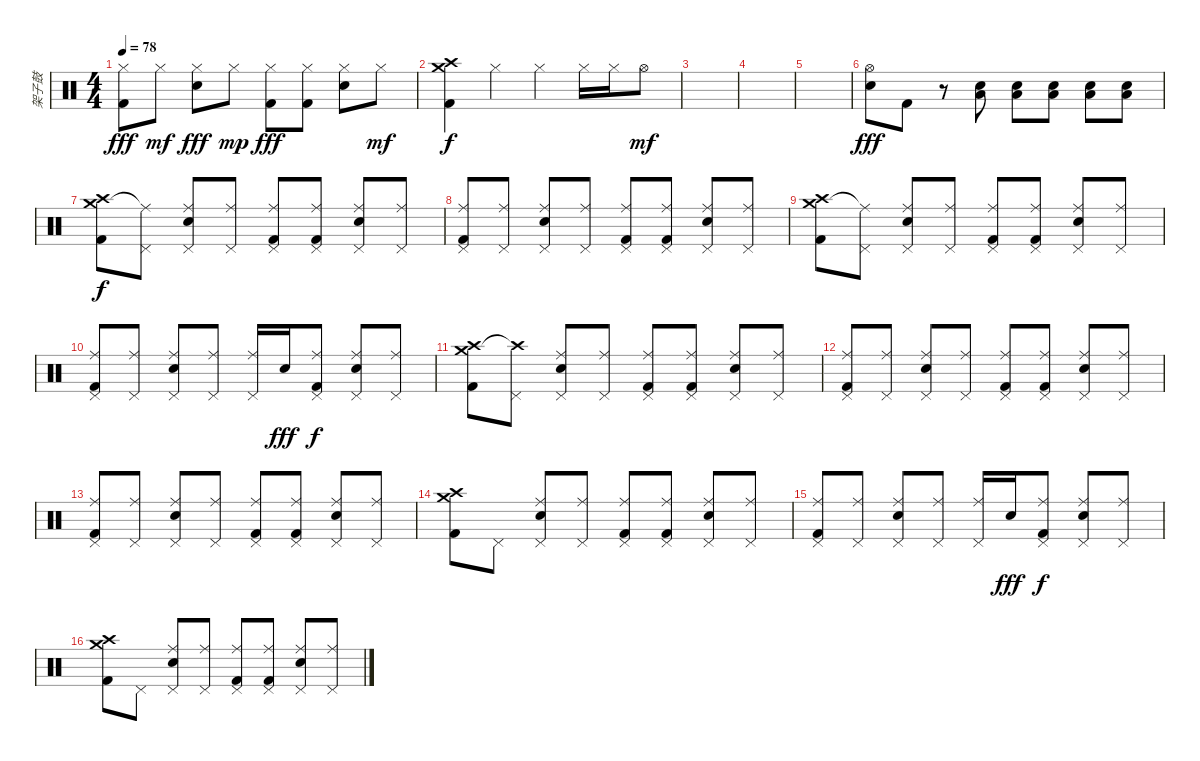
\track ("架子鼓" "架子鼓") {instrument percussion}
\staff {score}
\articulation defaults
\ts (4 4)
\tempo 78
\clef neutral
\ks c
("Hi-Hat (closed)" "Kick (hit) 2").8{dy fff} "Hi-Hat (closed)".8{dy mf} ("Hi-Hat (closed)" "Electric Snare (hit)").8{dy fff} "Hi-Hat (closed)".8{dy mp} ("Hi-Hat (closed)" "Kick (hit) 2").8{dy fff} ("Hi-Hat (closed)" "Kick (hit) 2").8 ("Hi-Hat (closed)" "Electric Snare (hit)").8 "Hi-Hat (closed)".8{dy mf} |
("Crash medium (hit)" "Crash high (hit)" "Kick (hit) 2").4{dy f} "Hi-Hat (closed)".4 "Hi-Hat (closed)".4 "Hi-Hat (closed)".16 "Hi-Hat (closed)".16 "Hi-Hat (open)".8{dy mf} |
|
|
|
("Hi-Hat (open)" "Electric Snare (hit)").8{dy fff} "Kick (hit) 2".8 r.8 ("Electric Snare (hit)" "Low Floor Tom (hit)").8 ("Electric Snare (hit)" "Low Floor Tom (hit)").8 ("Electric Snare (hit)" "Low Floor Tom (hit)").8 ("Electric Snare (hit)" "Low Floor Tom (hit)").8 ("Electric Snare (hit)" "Low Floor Tom (hit)").8 |
("Crash medium (hit)" "Crash high (hit)" "Kick (hit) 2").8{dy f} ("Ride (middle)"{t} "Pedal Hi-Hat (hit)").8 ("Ride (middle)" "Pedal Hi-Hat (hit)" "Electric Snare (hit)").8 ("Ride (middle)" "Pedal Hi-Hat (hit)").8 ("Ride (middle)" "Pedal Hi-Hat (hit)" "Kick (hit) 2").8 ("Ride (middle)" "Pedal Hi-Hat (hit)" "Kick (hit) 2").8 ("Ride (middle)" "Pedal Hi-Hat (hit)" "Electric Snare (hit)").8 ("Ride (middle)" "Pedal Hi-Hat (hit)").8 |
("Ride (middle)" "Pedal Hi-Hat (hit)" "Kick (hit) 2").8 ("Ride (middle)" "Pedal Hi-Hat (hit)").8 ("Ride (middle)" "Pedal Hi-Hat (hit)" "Electric Snare (hit)").8 ("Ride (middle)" "Pedal Hi-Hat (hit)").8 ("Ride (middle)" "Pedal Hi-Hat (hit)" "Kick (hit) 2").8 ("Ride (middle)" "Pedal Hi-Hat (hit)" "Kick (hit) 2").8 ("Ride (middle)" "Pedal Hi-Hat (hit)" "Electric Snare (hit)").8 ("Ride (middle)" "Pedal Hi-Hat (hit)").8 |
("Crash medium (hit)" "Crash high (hit)" "Kick (hit) 2").8 ("Ride (middle)"{t} "Pedal Hi-Hat (hit)").8 ("Ride (middle)" "Pedal Hi-Hat (hit)" "Electric Snare (hit)").8 ("Ride (middle)" "Pedal Hi-Hat (hit)").8 ("Ride (middle)" "Pedal Hi-Hat (hit)" "Kick (hit) 2").8 ("Ride (middle)" "Pedal Hi-Hat (hit)" "Kick (hit) 2").8 ("Ride (middle)" "Pedal Hi-Hat (hit)" "Electric Snare (hit)").8 ("Ride (middle)" "Pedal Hi-Hat (hit)").8 |
("Ride (middle)" "Pedal Hi-Hat (hit)" "Kick (hit) 2").8 ("Ride (middle)" "Pedal Hi-Hat (hit)").8 ("Ride (middle)" "Pedal Hi-Hat (hit)" "Electric Snare (hit)").8 ("Ride (middle)" "Pedal Hi-Hat (hit)").8 ("Ride (middle)" "Pedal Hi-Hat (hit)").16 "Electric Snare (hit)".16{dy fff} ("Ride (middle)" "Pedal Hi-Hat (hit)" "Kick (hit) 2").8{dy f} ("Ride (middle)" "Pedal Hi-Hat (hit)" "Electric Snare (hit)").8 ("Ride (middle)" "Pedal Hi-Hat (hit)").8 |
("Crash medium (hit)" "Crash high (hit)" "Kick (hit) 2").8 ("Crash high (hit)"{t} "Pedal Hi-Hat (hit)").8 ("Ride (middle)" "Pedal Hi-Hat (hit)" "Electric Snare (hit)").8 ("Ride (middle)" "Pedal Hi-Hat (hit)").8 ("Ride (middle)" "Pedal Hi-Hat (hit)" "Kick (hit) 2").8 ("Ride (middle)" "Pedal Hi-Hat (hit)" "Kick (hit) 2").8 ("Ride (middle)" "Pedal Hi-Hat (hit)" "Electric Snare (hit)").8 ("Ride (middle)" "Pedal Hi-Hat (hit)").8 |
("Ride (middle)" "Pedal Hi-Hat (hit)" "Kick (hit) 2").8 ("Ride (middle)" "Pedal Hi-Hat (hit)").8 ("Ride (middle)" "Pedal Hi-Hat (hit)" "Electric Snare (hit)").8 ("Ride (middle)" "Pedal Hi-Hat (hit)").8 ("Ride (middle)" "Pedal Hi-Hat (hit)" "Kick (hit) 2").8 ("Ride (middle)" "Pedal Hi-Hat (hit)" "Kick (hit) 2").8 ("Ride (middle)" "Pedal Hi-Hat (hit)" "Electric Snare (hit)").8 ("Ride (middle)" "Pedal Hi-Hat (hit)").8 |
("Ride (middle)" "Pedal Hi-Hat (hit)" "Kick (hit) 2").8 ("Ride (middle)" "Pedal Hi-Hat (hit)").8 ("Ride (middle)" "Pedal Hi-Hat (hit)" "Electric Snare (hit)").8 ("Ride (middle)" "Pedal Hi-Hat (hit)").8 ("Ride (middle)" "Pedal Hi-Hat (hit)" "Kick (hit) 2").8 ("Ride (middle)" "Pedal Hi-Hat (hit)" "Kick (hit) 2").8 ("Ride (middle)" "Pedal Hi-Hat (hit)" "Electric Snare (hit)").8 ("Ride (middle)" "Pedal Hi-Hat (hit)").8 |
("Crash medium (hit)" "Crash high (hit)" "Kick (hit) 2").8 "Pedal Hi-Hat (hit)".8 ("Ride (middle)" "Pedal Hi-Hat (hit)" "Electric Snare (hit)").8 ("Ride (middle)" "Pedal Hi-Hat (hit)").8 ("Ride (middle)" "Pedal Hi-Hat (hit)" "Kick (hit) 2").8 ("Ride (middle)" "Pedal Hi-Hat (hit)" "Kick (hit) 2").8 ("Ride (middle)" "Pedal Hi-Hat (hit)" "Electric Snare (hit)").8 ("Ride (middle)" "Pedal Hi-Hat (hit)").8 |
("Ride (middle)" "Pedal Hi-Hat (hit)" "Kick (hit) 2").8 ("Ride (middle)" "Pedal Hi-Hat (hit)").8 ("Ride (middle)" "Pedal Hi-Hat (hit)" "Electric Snare (hit)").8 ("Ride (middle)" "Pedal Hi-Hat (hit)").8 ("Ride (middle)" "Pedal Hi-Hat (hit)").16 "Electric Snare (hit)".16{dy fff} ("Ride (middle)" "Pedal Hi-Hat (hit)" "Kick (hit) 2").8{dy f} ("Ride (middle)" "Pedal Hi-Hat (hit)" "Electric Snare (hit)").8 ("Ride (middle)" "Pedal Hi-Hat (hit)").8 |
("Crash high (hit)" "Crash medium (hit)" "Kick (hit) 2").8 "Pedal Hi-Hat (hit)".8 ("Ride (middle)" "Pedal Hi-Hat (hit)" "Electric Snare (hit)").8 ("Ride (middle)" "Pedal Hi-Hat (hit)").8 ("Ride (middle)" "Pedal Hi-Hat (hit)" "Kick (hit) 2").8 ("Ride (middle)" "Pedal Hi-Hat (hit)" "Kick (hit) 2").8 ("Ride (middle)" "Pedal Hi-Hat (hit)" "Electric Snare (hit)").8 ("Ride (middle)" "Pedal Hi-Hat (hit)").8
